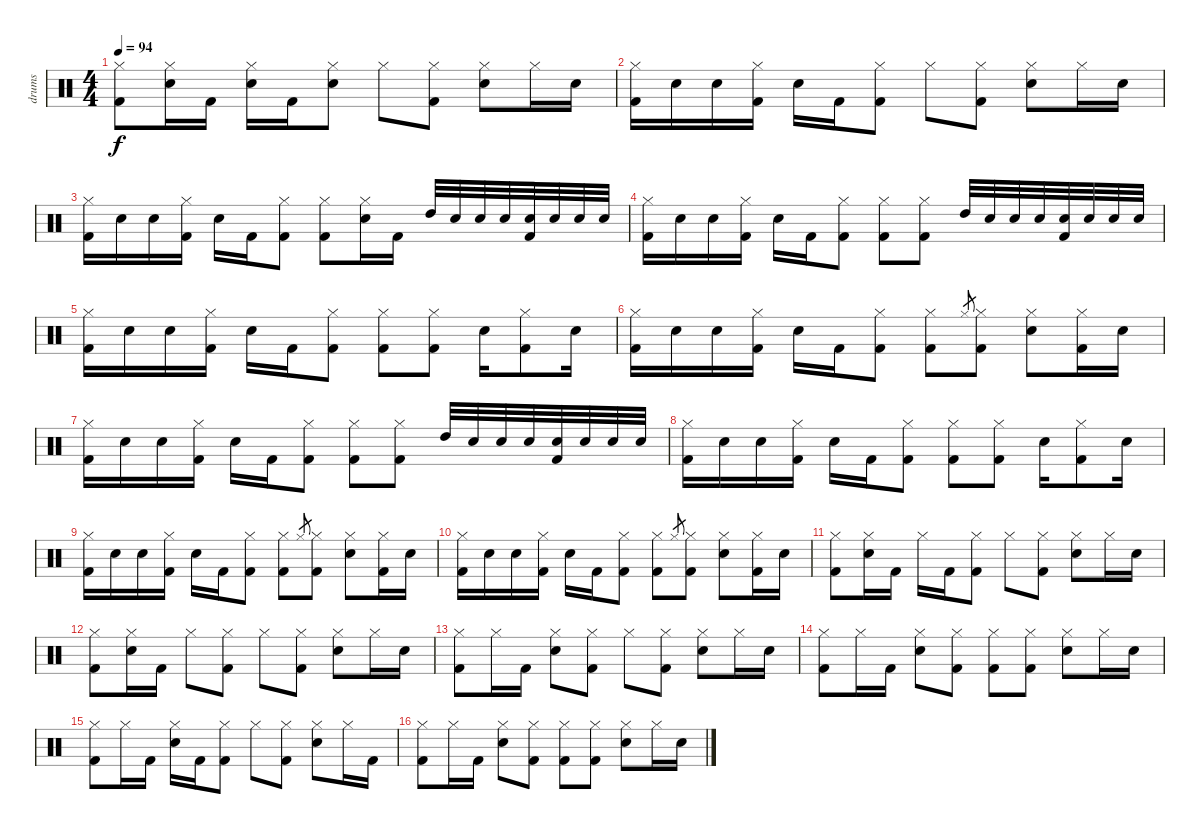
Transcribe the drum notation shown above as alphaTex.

\track ("drums" "drums") {instrument percussion}
\staff {score}
\articulation defaults
\ts (4 4)
\tempo 94
\clef neutral
\ks c
("Hi-Hat (closed)" "Kick (hit) 2").8{dy f} ("Snare (hit) 2" "Hi-Hat (closed)").16 "Kick (hit) 2".16 ("Hi-Hat (closed)" "Snare (hit) 2").16 "Kick (hit) 2".16 ("Hi-Hat (closed)" "Snare (hit) 2").8 "Hi-Hat (closed)".8 ("Hi-Hat (closed)" "Kick (hit) 2").8 ("Hi-Hat (closed)" "Snare (hit) 2").8 "Hi-Hat (closed)".16 "Snare (hit) 2".16 |
("Hi-Hat (closed)" "Kick (hit) 2").16 "Snare (hit) 2".16 "Snare (hit) 2".16 ("Hi-Hat (closed)" "Kick (hit) 2").16 "Snare (hit) 2".16 "Kick (hit) 2".16 ("Hi-Hat (closed)" "Kick (hit) 2").8 "Hi-Hat (closed)".8 ("Kick (hit) 2" "Hi-Hat (closed)").8 ("Hi-Hat (closed)" "Snare (hit) 2").8 "Hi-Hat (closed)".16 "Snare (hit) 2".16 |
("Hi-Hat (closed)" "Kick (hit) 2").16 "Snare (hit) 2".16 "Snare (hit) 2".16 ("Hi-Hat (closed)" "Kick (hit) 2").16 "Snare (hit) 2".16 "Kick (hit) 2".16 ("Hi-Hat (closed)" "Kick (hit) 2").8 ("Hi-Hat (closed)" "Kick (hit) 2").8 ("Snare (hit) 2" "Hi-Hat (closed)").16 "Kick (hit) 2".16 "High Tom (hit)".32 "Snare (hit) 2".32 "Snare (hit) 2".32 "Snare (hit) 2".32 ("Kick (hit) 2" "Snare (hit) 2").32 "Snare (hit) 2".32 "Snare (hit) 2".32 "Snare (hit) 2".32 |
("Hi-Hat (closed)" "Kick (hit) 2").16 "Snare (hit) 2".16 "Snare (hit) 2".16 ("Hi-Hat (closed)" "Kick (hit) 2").16 "Snare (hit) 2".16 "Kick (hit) 2".16 ("Hi-Hat (closed)" "Kick (hit) 2").8 ("Hi-Hat (closed)" "Kick (hit) 2").8 ("Kick (hit) 2" "Hi-Hat (closed)").8 "High Tom (hit)".32 "Snare (hit) 2".32 "Snare (hit) 2".32 "Snare (hit) 2".32 ("Kick (hit) 2" "Snare (hit) 2").32 "Snare (hit) 2".32 "Snare (hit) 2".32 "Snare (hit) 2".32 |
("Hi-Hat (closed)" "Kick (hit) 2").16 "Snare (hit) 2".16 "Snare (hit) 2".16 ("Hi-Hat (closed)" "Kick (hit) 2").16 "Snare (hit) 2".16 "Kick (hit) 2".16 ("Hi-Hat (closed)" "Kick (hit) 2").8 ("Hi-Hat (closed)" "Kick (hit) 2").8 ("Kick (hit) 2" "Hi-Hat (closed)").8 "Snare (hit) 2".16 ("Hi-Hat (closed)" "Kick (hit) 2").8 "Snare (hit) 2".16 |
("Hi-Hat (closed)" "Kick (hit) 2").16 "Snare (hit) 2".16 "Snare (hit) 2".16 ("Hi-Hat (closed)" "Kick (hit) 2").16 "Snare (hit) 2".16 "Kick (hit) 2".16 ("Hi-Hat (closed)" "Kick (hit) 2").8 ("Hi-Hat (closed)" "Kick (hit) 2").8 "Hi-Hat (closed)".8{gr} ("Kick (hit) 2" "Hi-Hat (closed)").8 ("Hi-Hat (closed)" "Snare (hit) 2").8 ("Hi-Hat (closed)" "Kick (hit) 2").16 "Snare (hit) 2".16 |
("Hi-Hat (closed)" "Kick (hit) 2").16 "Snare (hit) 2".16 "Snare (hit) 2".16 ("Hi-Hat (closed)" "Kick (hit) 2").16 "Snare (hit) 2".16 "Kick (hit) 2".16 ("Hi-Hat (closed)" "Kick (hit) 2").8 ("Hi-Hat (closed)" "Kick (hit) 2").8 ("Kick (hit) 2" "Hi-Hat (closed)").8 "High Tom (hit)".32 "Snare (hit) 2".32 "Snare (hit) 2".32 "Snare (hit) 2".32 ("Kick (hit) 2" "Snare (hit) 2").32 "Snare (hit) 2".32 "Snare (hit) 2".32 "Snare (hit) 2".32 |
("Hi-Hat (closed)" "Kick (hit) 2").16 "Snare (hit) 2".16 "Snare (hit) 2".16 ("Hi-Hat (closed)" "Kick (hit) 2").16 "Snare (hit) 2".16 "Kick (hit) 2".16 ("Hi-Hat (closed)" "Kick (hit) 2").8 ("Hi-Hat (closed)" "Kick (hit) 2").8 ("Kick (hit) 2" "Hi-Hat (closed)").8 "Snare (hit) 2".16 ("Hi-Hat (closed)" "Kick (hit) 2").8 "Snare (hit) 2".16 |
("Hi-Hat (closed)" "Kick (hit) 2").16 "Snare (hit) 2".16 "Snare (hit) 2".16 ("Hi-Hat (closed)" "Kick (hit) 2").16 "Snare (hit) 2".16 "Kick (hit) 2".16 ("Hi-Hat (closed)" "Kick (hit) 2").8 ("Hi-Hat (closed)" "Kick (hit) 2").8 "Hi-Hat (closed)".8{gr} ("Kick (hit) 2" "Hi-Hat (closed)").8 ("Hi-Hat (closed)" "Snare (hit) 2").8 ("Hi-Hat (closed)" "Kick (hit) 2").16 "Snare (hit) 2".16 |
("Hi-Hat (closed)" "Kick (hit) 2").16 "Snare (hit) 2".16 "Snare (hit) 2".16 ("Hi-Hat (closed)" "Kick (hit) 2").16 "Snare (hit) 2".16 "Kick (hit) 2".16 ("Hi-Hat (closed)" "Kick (hit) 2").8 ("Hi-Hat (closed)" "Kick (hit) 2").8 "Hi-Hat (closed)".8{gr} ("Kick (hit) 2" "Hi-Hat (closed)").8 ("Hi-Hat (closed)" "Snare (hit) 2").8 ("Hi-Hat (closed)" "Kick (hit) 2").16 "Snare (hit) 2".16 |
("Hi-Hat (closed)" "Kick (hit) 2").8 ("Hi-Hat (closed)" "Snare (hit) 2").16 "Kick (hit) 2".16 "Hi-Hat (closed)".16 "Kick (hit) 2".16 ("Hi-Hat (closed)" "Kick (hit) 2").8 "Hi-Hat (closed)".8 ("Hi-Hat (closed)" "Kick (hit) 2").8 ("Snare (hit) 2" "Hi-Hat (closed)").8 "Hi-Hat (closed)".16 "Snare (hit) 2".16 |
("Hi-Hat (closed)" "Kick (hit) 2").8 ("Hi-Hat (closed)" "Snare (hit) 2").16 "Kick (hit) 2".16 "Hi-Hat (closed)".8 ("Hi-Hat (closed)" "Kick (hit) 2").8 "Hi-Hat (closed)".8 ("Hi-Hat (closed)" "Kick (hit) 2").8 ("Snare (hit) 2" "Hi-Hat (closed)").8 "Hi-Hat (closed)".16 "Snare (hit) 2".16 |
("Hi-Hat (closed)" "Kick (hit) 2").8 "Hi-Hat (closed)".16 "Kick (hit) 2".16 ("Hi-Hat (closed)" "Snare (hit) 2").8 ("Hi-Hat (closed)" "Kick (hit) 2").8 "Hi-Hat (closed)".8 ("Hi-Hat (closed)" "Kick (hit) 2").8 ("Snare (hit) 2" "Hi-Hat (closed)").8 "Hi-Hat (closed)".16 "Snare (hit) 2".16 |
("Kick (hit) 2" "Hi-Hat (closed)").8 "Hi-Hat (closed)".16 "Kick (hit) 2".16 ("Hi-Hat (closed)" "Snare (hit) 2").8 ("Kick (hit) 2" "Hi-Hat (closed)").8 ("Kick (hit) 2" "Hi-Hat (closed)").8 ("Hi-Hat (closed)" "Kick (hit) 2").8 ("Hi-Hat (closed)" "Snare (hit) 2").8 "Hi-Hat (closed)".16 "Snare (hit) 2".16 |
("Hi-Hat (closed)" "Kick (hit) 2").8 "Hi-Hat (closed)".16 "Kick (hit) 2".16 ("Hi-Hat (closed)" "Snare (hit) 2").16 "Kick (hit) 2".16 ("Hi-Hat (closed)" "Kick (hit) 2").8 "Hi-Hat (closed)".8 ("Hi-Hat (closed)" "Kick (hit) 2").8 ("Hi-Hat (closed)" "Snare (hit) 2").8 "Hi-Hat (closed)".16 "Kick (hit) 2".16 |
("Kick (hit) 2" "Hi-Hat (closed)").8 "Hi-Hat (closed)".16 "Kick (hit) 2".16 ("Hi-Hat (closed)" "Snare (hit) 2").8 ("Kick (hit) 2" "Hi-Hat (closed)").8 ("Kick (hit) 2" "Hi-Hat (closed)").8 ("Hi-Hat (closed)" "Kick (hit) 2").8 ("Hi-Hat (closed)" "Snare (hit) 2").8 "Hi-Hat (closed)".16 "Snare (hit) 2".16
